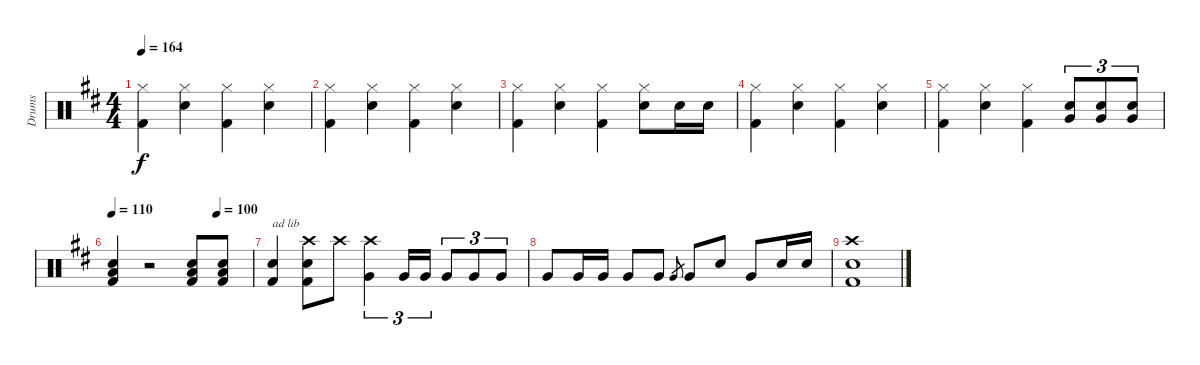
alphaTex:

\track ("Drums" "Drums") {instrument percussion}
\staff {score}
\articulation defaults
\ts (4 4)
\tempo 164
\clef neutral
\ks d
("Hi-Hat (closed)" "Kick (hit) 2").4{dy f} ("Hi-Hat (closed)" "Snare (hit) 2").4 ("Hi-Hat (closed)" "Kick (hit) 2").4 ("Hi-Hat (closed)" "Snare (hit) 2").4 |
("Hi-Hat (closed)" "Kick (hit) 2").4 ("Hi-Hat (closed)" "Snare (hit) 2").4 ("Hi-Hat (closed)" "Kick (hit) 2").4 ("Hi-Hat (closed)" "Snare (hit) 2").4 |
("Hi-Hat (closed)" "Kick (hit) 2").4 ("Hi-Hat (closed)" "Snare (hit) 2").4 ("Hi-Hat (closed)" "Kick (hit) 2").4 ("Hi-Hat (closed)" "Snare (hit) 2").8 "Snare (hit) 2".16 "Snare (hit) 2".16 |
("Hi-Hat (closed)" "Kick (hit) 2").4 ("Hi-Hat (closed)" "Snare (hit) 2").4 ("Hi-Hat (closed)" "Kick (hit) 2").4 ("Hi-Hat (closed)" "Snare (hit) 2").4 |
("Hi-Hat (closed)" "Kick (hit) 2").4 ("Hi-Hat (closed)" "Snare (hit) 2").4 ("Hi-Hat (closed)" "Kick (hit) 2").4 ("Very Low Tom (hit)" "Snare (hit) 2").8{tu (3 2)} ("Very Low Tom (hit)" "Snare (hit) 2").8{tu (3 2)} ("Very Low Tom (hit)" "Snare (hit) 2").8{tu (3 2)} |
\tempo 110
\tempo (100 0.75)
("Low Floor Tom (hit)" "Snare (hit) 2" "Kick (hit) 2").4 r.2 ("Low Floor Tom (hit)" "Snare (hit) 2" "Kick (hit) 2").8 ("Low Floor Tom (hit)" "Snare (hit) 2" "Kick (hit) 2").8 |
("Snare (hit) 2" "Kick (hit) 2").4{txt "ad lib"} ("Crash high (hit)" "Snare (hit) 2" "Kick (hit) 2").8 "Crash high (hit)".8 ("Crash high (hit)" "Very Low Tom (hit)").4{tu (3 2)} "Very Low Tom (hit)".16{tu (3 2)} "Very Low Tom (hit)".16{tu (3 2)} "Very Low Tom (hit)".8{tu (3 2)} "Very Low Tom (hit)".8{tu (3 2)} "Very Low Tom (hit)".8{tu (3 2)} |
"Very Low Tom (hit)".8 "Very Low Tom (hit)".16 "Very Low Tom (hit)".16 "Very Low Tom (hit)".8 "Very Low Tom (hit)".8 "Very Low Tom (hit)".8{gr} "Very Low Tom (hit)".8 "Snare (hit) 2".8 "Very Low Tom (hit)".8 "Snare (hit) 2".16 "Snare (hit) 2".16 |
("Crash high (hit)" "Snare (hit) 2" "Kick (hit) 2").1{volume 16}
